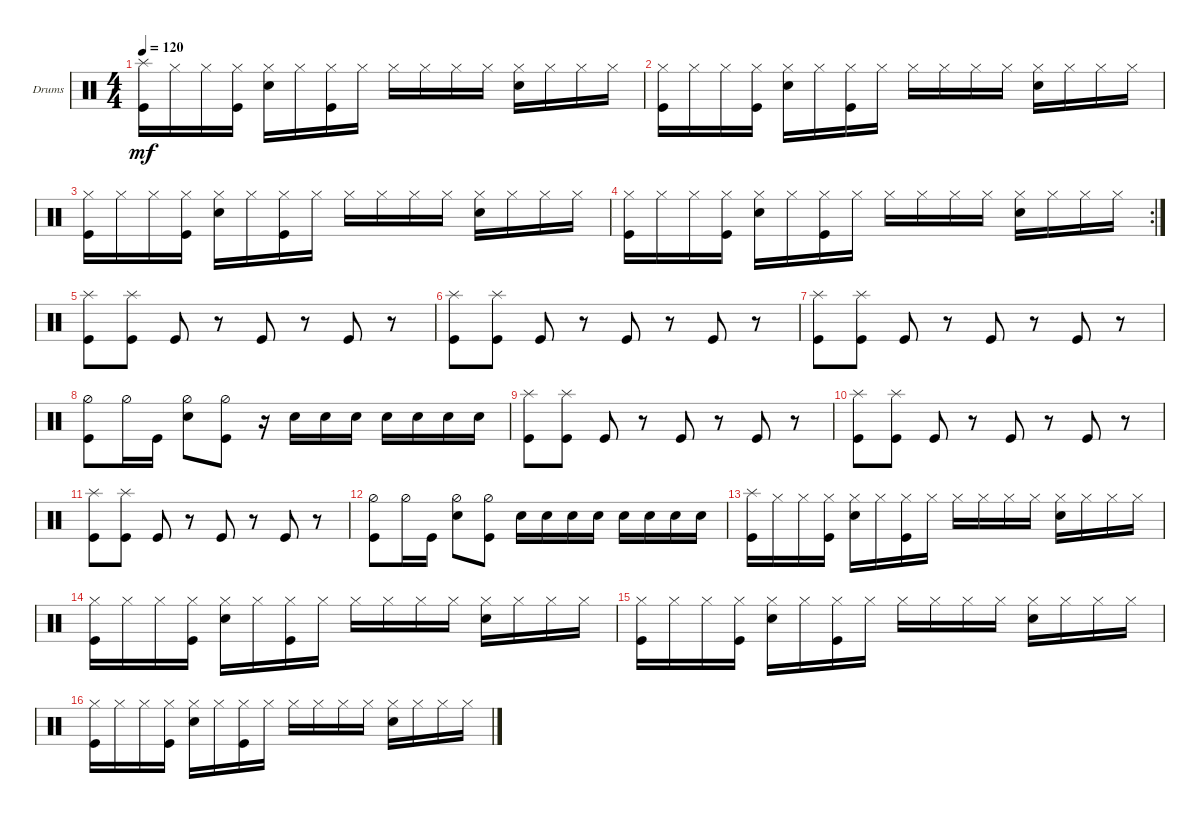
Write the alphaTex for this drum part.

\defaultSystemsLayout 4
\bracketExtendMode groupsimilarinstruments
\firstSystemTrackNameOrientation horizontal
\otherSystemsTrackNameOrientation horizontal
\track ("Drumkit" "Drums") {instrument percussion}
\staff {score}
\articulation defaults
\ts (4 4)
\tempo 120
\clef neutral
\ks c
("Splash (hit)" "Kick (hit)").16{dy mf} "Hi-Hat (closed)".16 "Hi-Hat (closed)".16 ("Hi-Hat (closed)" "Kick (hit)").16 ("Hi-Hat (closed)" "Snare (hit) 2").16 "Hi-Hat (closed)".16 ("Hi-Hat (closed)" "Kick (hit)").16 "Hi-Hat (closed)".16 "Hi-Hat (closed)".16 "Hi-Hat (closed)".16 "Hi-Hat (closed)".16 "Hi-Hat (closed)".16 ("Hi-Hat (closed)" "Snare (hit) 2").16 "Hi-Hat (closed)".16 "Hi-Hat (closed)".16 "Hi-Hat (closed)".16 |
("Kick (hit)" "Hi-Hat (closed)").16 "Hi-Hat (closed)".16 "Hi-Hat (closed)".16 ("Hi-Hat (closed)" "Kick (hit)").16 ("Hi-Hat (closed)" "Snare (hit) 2").16 "Hi-Hat (closed)".16 ("Hi-Hat (closed)" "Kick (hit)").16 "Hi-Hat (closed)".16 "Hi-Hat (closed)".16 "Hi-Hat (closed)".16 "Hi-Hat (closed)".16 "Hi-Hat (closed)".16 ("Hi-Hat (closed)" "Snare (hit) 2").16 "Hi-Hat (closed)".16 "Hi-Hat (closed)".16 "Hi-Hat (closed)".16 |
("Kick (hit)" "Hi-Hat (closed)").16 "Hi-Hat (closed)".16 "Hi-Hat (closed)".16 ("Hi-Hat (closed)" "Kick (hit)").16 ("Hi-Hat (closed)" "Snare (hit) 2").16 "Hi-Hat (closed)".16 ("Hi-Hat (closed)" "Kick (hit)").16 "Hi-Hat (closed)".16 "Hi-Hat (closed)".16 "Hi-Hat (closed)".16 "Hi-Hat (closed)".16 "Hi-Hat (closed)".16 ("Hi-Hat (closed)" "Snare (hit) 2").16 "Hi-Hat (closed)".16 "Hi-Hat (closed)".16 "Hi-Hat (closed)".16 |
\rc 2
("Kick (hit)" "Hi-Hat (closed)").16 "Hi-Hat (closed)".16 "Hi-Hat (closed)".16 ("Hi-Hat (closed)" "Kick (hit)").16 ("Hi-Hat (closed)" "Snare (hit) 2").16 "Hi-Hat (closed)".16 ("Hi-Hat (closed)" "Kick (hit)").16 "Hi-Hat (closed)".16 "Hi-Hat (closed)".16 "Hi-Hat (closed)".16 "Hi-Hat (closed)".16 "Hi-Hat (closed)".16 ("Hi-Hat (closed)" "Snare (hit) 2").16 "Hi-Hat (closed)".16 "Hi-Hat (closed)".16 "Hi-Hat (closed)".16 |
("Kick (hit)" "Splash (hit)").8 ("Kick (hit)" "Splash (hit)").8 "Kick (hit)".8 r.8 "Kick (hit)".8 r.8 "Kick (hit)".8 r.8 |
("Kick (hit)" "Splash (hit)").8 ("Kick (hit)" "Splash (hit)").8 "Kick (hit)".8 r.8 "Kick (hit)".8 r.8 "Kick (hit)".8 r.8 |
("Kick (hit)" "Splash (hit)").8 ("Kick (hit)" "Splash (hit)").8 "Kick (hit)".8 r.8 "Kick (hit)".8 r.8 "Kick (hit)".8 r.8 |
("Kick (hit)" "Hi-Hat (half)").8 "Hi-Hat (half)".16 "Kick (hit)".16 ("Snare (hit) 2" "Hi-Hat (half)").8 ("Hi-Hat (half)" "Kick (hit)").8 r.16 "Snare (hit) 2".16 "Snare (hit) 2".16 "Snare (hit) 2".16 "Snare (hit) 2".16 "Snare (hit) 2".16 "Snare (hit) 2".16 "Snare (hit) 2".16 |
("Kick (hit)" "Splash (hit)").8 ("Kick (hit)" "Splash (hit)").8 "Kick (hit)".8 r.8 "Kick (hit)".8 r.8 "Kick (hit)".8 r.8 |
("Kick (hit)" "Splash (hit)").8 ("Kick (hit)" "Splash (hit)").8 "Kick (hit)".8 r.8 "Kick (hit)".8 r.8 "Kick (hit)".8 r.8 |
("Kick (hit)" "Splash (hit)").8 ("Kick (hit)" "Splash (hit)").8 "Kick (hit)".8 r.8 "Kick (hit)".8 r.8 "Kick (hit)".8 r.8 |
("Kick (hit)" "Hi-Hat (half)").8 "Hi-Hat (half)".16 "Kick (hit)".16 ("Snare (hit) 2" "Hi-Hat (half)").8 ("Hi-Hat (half)" "Kick (hit)").8 "Snare (hit) 2".16 "Snare (hit) 2".16 "Snare (hit) 2".16 "Snare (hit) 2".16 "Snare (hit) 2".16 "Snare (hit) 2".16 "Snare (hit) 2".16 "Snare (hit) 2".16 |
("Splash (hit)" "Kick (hit)").16 "Hi-Hat (closed)".16 "Hi-Hat (closed)".16 ("Hi-Hat (closed)" "Kick (hit)").16 ("Hi-Hat (closed)" "Snare (hit) 2").16 "Hi-Hat (closed)".16 ("Hi-Hat (closed)" "Kick (hit)").16 "Hi-Hat (closed)".16 "Hi-Hat (closed)".16 "Hi-Hat (closed)".16 "Hi-Hat (closed)".16 "Hi-Hat (closed)".16 ("Hi-Hat (closed)" "Snare (hit) 2").16 "Hi-Hat (closed)".16 "Hi-Hat (closed)".16 "Hi-Hat (closed)".16 |
("Kick (hit)" "Hi-Hat (closed)").16 "Hi-Hat (closed)".16 "Hi-Hat (closed)".16 ("Hi-Hat (closed)" "Kick (hit)").16 ("Hi-Hat (closed)" "Snare (hit) 2").16 "Hi-Hat (closed)".16 ("Hi-Hat (closed)" "Kick (hit)").16 "Hi-Hat (closed)".16 "Hi-Hat (closed)".16 "Hi-Hat (closed)".16 "Hi-Hat (closed)".16 "Hi-Hat (closed)".16 ("Hi-Hat (closed)" "Snare (hit) 2").16 "Hi-Hat (closed)".16 "Hi-Hat (closed)".16 "Hi-Hat (closed)".16 |
("Kick (hit)" "Hi-Hat (closed)").16 "Hi-Hat (closed)".16 "Hi-Hat (closed)".16 ("Hi-Hat (closed)" "Kick (hit)").16 ("Hi-Hat (closed)" "Snare (hit) 2").16 "Hi-Hat (closed)".16 ("Hi-Hat (closed)" "Kick (hit)").16 "Hi-Hat (closed)".16 "Hi-Hat (closed)".16 "Hi-Hat (closed)".16 "Hi-Hat (closed)".16 "Hi-Hat (closed)".16 ("Hi-Hat (closed)" "Snare (hit) 2").16 "Hi-Hat (closed)".16 "Hi-Hat (closed)".16 "Hi-Hat (closed)".16 |
("Kick (hit)" "Hi-Hat (closed)").16 "Hi-Hat (closed)".16 "Hi-Hat (closed)".16 ("Hi-Hat (closed)" "Kick (hit)").16 ("Hi-Hat (closed)" "Snare (hit) 2").16 "Hi-Hat (closed)".16 ("Hi-Hat (closed)" "Kick (hit)").16 "Hi-Hat (closed)".16 "Hi-Hat (closed)".16 "Hi-Hat (closed)".16 "Hi-Hat (closed)".16 "Hi-Hat (closed)".16 ("Hi-Hat (closed)" "Snare (hit) 2").16 "Hi-Hat (closed)".16 "Hi-Hat (closed)".16 "Hi-Hat (closed)".16
